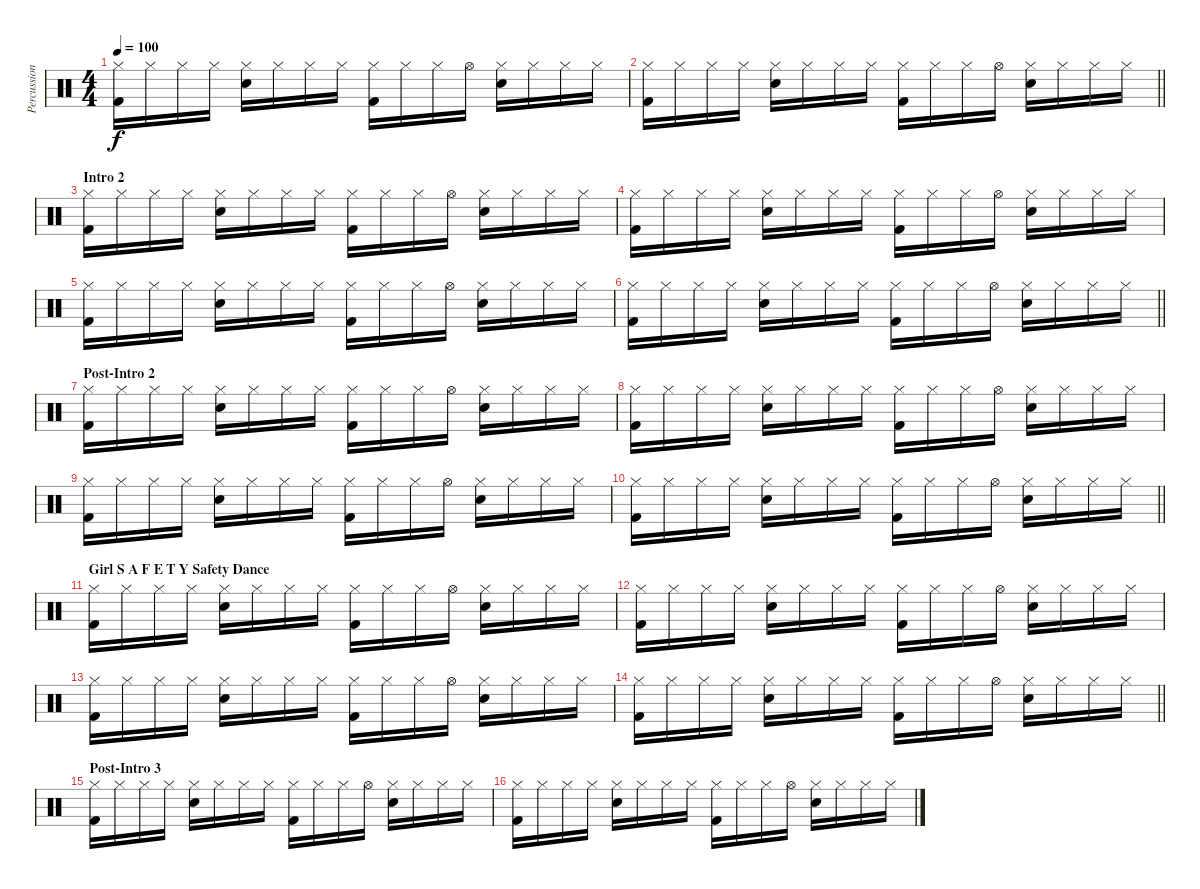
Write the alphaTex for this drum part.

\track ("Percussion" "Percussion") {instrument percussion}
\staff {score}
\articulation defaults
\ts (4 4)
\tempo 100
\clef neutral
\ks c
("Kick (hit) 2" "Hi-Hat (closed)").16{dy f} "Hi-Hat (closed)".16 "Hi-Hat (closed)".16 "Hi-Hat (closed)".16 ("Electric Snare (hit)" "Hi-Hat (closed)").16 "Hi-Hat (closed)".16 "Hi-Hat (closed)".16 "Hi-Hat (closed)".16 ("Kick (hit) 2" "Hi-Hat (closed)").16 "Hi-Hat (closed)".16 "Hi-Hat (closed)".16 "Hi-Hat (open)".16 ("Hi-Hat (closed)" "Electric Snare (hit)").16 "Hi-Hat (closed)".16 "Hi-Hat (closed)".16 "Hi-Hat (closed)".16 |
\barLineRight lightlight
("Kick (hit) 2" "Hi-Hat (closed)").16 "Hi-Hat (closed)".16 "Hi-Hat (closed)".16 "Hi-Hat (closed)".16 ("Electric Snare (hit)" "Hi-Hat (closed)").16 "Hi-Hat (closed)".16 "Hi-Hat (closed)".16 "Hi-Hat (closed)".16 ("Kick (hit) 2" "Hi-Hat (closed)").16 "Hi-Hat (closed)".16 "Hi-Hat (closed)".16 "Hi-Hat (open)".16 ("Hi-Hat (closed)" "Electric Snare (hit)").16 "Hi-Hat (closed)".16 "Hi-Hat (closed)".16 "Hi-Hat (closed)".16 |
\section ("" "Intro 2")
("Kick (hit) 2" "Hi-Hat (closed)").16 "Hi-Hat (closed)".16 "Hi-Hat (closed)".16 "Hi-Hat (closed)".16 ("Electric Snare (hit)" "Hi-Hat (closed)").16 "Hi-Hat (closed)".16 "Hi-Hat (closed)".16 "Hi-Hat (closed)".16 ("Kick (hit) 2" "Hi-Hat (closed)").16 "Hi-Hat (closed)".16 "Hi-Hat (closed)".16 "Hi-Hat (open)".16 ("Hi-Hat (closed)" "Electric Snare (hit)").16 "Hi-Hat (closed)".16 "Hi-Hat (closed)".16 "Hi-Hat (closed)".16 |
("Kick (hit) 2" "Hi-Hat (closed)").16 "Hi-Hat (closed)".16 "Hi-Hat (closed)".16 "Hi-Hat (closed)".16 ("Electric Snare (hit)" "Hi-Hat (closed)").16 "Hi-Hat (closed)".16 "Hi-Hat (closed)".16 "Hi-Hat (closed)".16 ("Kick (hit) 2" "Hi-Hat (closed)").16 "Hi-Hat (closed)".16 "Hi-Hat (closed)".16 "Hi-Hat (open)".16 ("Hi-Hat (closed)" "Electric Snare (hit)").16 "Hi-Hat (closed)".16 "Hi-Hat (closed)".16 "Hi-Hat (closed)".16 |
("Kick (hit) 2" "Hi-Hat (closed)").16 "Hi-Hat (closed)".16 "Hi-Hat (closed)".16 "Hi-Hat (closed)".16 ("Electric Snare (hit)" "Hi-Hat (closed)").16 "Hi-Hat (closed)".16 "Hi-Hat (closed)".16 "Hi-Hat (closed)".16 ("Kick (hit) 2" "Hi-Hat (closed)").16 "Hi-Hat (closed)".16 "Hi-Hat (closed)".16 "Hi-Hat (open)".16 ("Hi-Hat (closed)" "Electric Snare (hit)").16 "Hi-Hat (closed)".16 "Hi-Hat (closed)".16 "Hi-Hat (closed)".16 |
\barLineRight lightlight
("Kick (hit) 2" "Hi-Hat (closed)").16 "Hi-Hat (closed)".16 "Hi-Hat (closed)".16 "Hi-Hat (closed)".16 ("Electric Snare (hit)" "Hi-Hat (closed)").16 "Hi-Hat (closed)".16 "Hi-Hat (closed)".16 "Hi-Hat (closed)".16 ("Kick (hit) 2" "Hi-Hat (closed)").16 "Hi-Hat (closed)".16 "Hi-Hat (closed)".16 "Hi-Hat (open)".16 ("Hi-Hat (closed)" "Electric Snare (hit)").16 "Hi-Hat (closed)".16 "Hi-Hat (closed)".16 "Hi-Hat (closed)".16 |
\section ("" "Post-Intro 2")
("Kick (hit) 2" "Hi-Hat (closed)").16 "Hi-Hat (closed)".16 "Hi-Hat (closed)".16 "Hi-Hat (closed)".16 ("Electric Snare (hit)" "Hi-Hat (closed)").16 "Hi-Hat (closed)".16 "Hi-Hat (closed)".16 "Hi-Hat (closed)".16 ("Kick (hit) 2" "Hi-Hat (closed)").16 "Hi-Hat (closed)".16 "Hi-Hat (closed)".16 "Hi-Hat (open)".16 ("Hi-Hat (closed)" "Electric Snare (hit)").16 "Hi-Hat (closed)".16 "Hi-Hat (closed)".16 "Hi-Hat (closed)".16 |
("Kick (hit) 2" "Hi-Hat (closed)").16 "Hi-Hat (closed)".16 "Hi-Hat (closed)".16 "Hi-Hat (closed)".16 ("Electric Snare (hit)" "Hi-Hat (closed)").16 "Hi-Hat (closed)".16 "Hi-Hat (closed)".16 "Hi-Hat (closed)".16 ("Kick (hit) 2" "Hi-Hat (closed)").16 "Hi-Hat (closed)".16 "Hi-Hat (closed)".16 "Hi-Hat (open)".16 ("Hi-Hat (closed)" "Electric Snare (hit)").16 "Hi-Hat (closed)".16 "Hi-Hat (closed)".16 "Hi-Hat (closed)".16 |
("Kick (hit) 2" "Hi-Hat (closed)").16 "Hi-Hat (closed)".16 "Hi-Hat (closed)".16 "Hi-Hat (closed)".16 ("Electric Snare (hit)" "Hi-Hat (closed)").16 "Hi-Hat (closed)".16 "Hi-Hat (closed)".16 "Hi-Hat (closed)".16 ("Kick (hit) 2" "Hi-Hat (closed)").16 "Hi-Hat (closed)".16 "Hi-Hat (closed)".16 "Hi-Hat (open)".16 ("Hi-Hat (closed)" "Electric Snare (hit)").16 "Hi-Hat (closed)".16 "Hi-Hat (closed)".16 "Hi-Hat (closed)".16 |
\barLineRight lightlight
("Kick (hit) 2" "Hi-Hat (closed)").16 "Hi-Hat (closed)".16 "Hi-Hat (closed)".16 "Hi-Hat (closed)".16 ("Electric Snare (hit)" "Hi-Hat (closed)").16 "Hi-Hat (closed)".16 "Hi-Hat (closed)".16 "Hi-Hat (closed)".16 ("Kick (hit) 2" "Hi-Hat (closed)").16 "Hi-Hat (closed)".16 "Hi-Hat (closed)".16 "Hi-Hat (open)".16 ("Hi-Hat (closed)" "Electric Snare (hit)").16 "Hi-Hat (closed)".16 "Hi-Hat (closed)".16 "Hi-Hat (closed)".16 |
\section ("" "Girl S A F E T Y Safety Dance")
("Kick (hit) 2" "Hi-Hat (closed)").16 "Hi-Hat (closed)".16 "Hi-Hat (closed)".16 "Hi-Hat (closed)".16 ("Electric Snare (hit)" "Hi-Hat (closed)").16 "Hi-Hat (closed)".16 "Hi-Hat (closed)".16 "Hi-Hat (closed)".16 ("Kick (hit) 2" "Hi-Hat (closed)").16 "Hi-Hat (closed)".16 "Hi-Hat (closed)".16 "Hi-Hat (open)".16 ("Hi-Hat (closed)" "Electric Snare (hit)").16 "Hi-Hat (closed)".16 "Hi-Hat (closed)".16 "Hi-Hat (closed)".16 |
("Kick (hit) 2" "Hi-Hat (closed)").16 "Hi-Hat (closed)".16 "Hi-Hat (closed)".16 "Hi-Hat (closed)".16 ("Electric Snare (hit)" "Hi-Hat (closed)").16 "Hi-Hat (closed)".16 "Hi-Hat (closed)".16 "Hi-Hat (closed)".16 ("Kick (hit) 2" "Hi-Hat (closed)").16 "Hi-Hat (closed)".16 "Hi-Hat (closed)".16 "Hi-Hat (open)".16 ("Hi-Hat (closed)" "Electric Snare (hit)").16 "Hi-Hat (closed)".16 "Hi-Hat (closed)".16 "Hi-Hat (closed)".16 |
("Kick (hit) 2" "Hi-Hat (closed)").16 "Hi-Hat (closed)".16 "Hi-Hat (closed)".16 "Hi-Hat (closed)".16 ("Electric Snare (hit)" "Hi-Hat (closed)").16 "Hi-Hat (closed)".16 "Hi-Hat (closed)".16 "Hi-Hat (closed)".16 ("Kick (hit) 2" "Hi-Hat (closed)").16 "Hi-Hat (closed)".16 "Hi-Hat (closed)".16 "Hi-Hat (open)".16 ("Hi-Hat (closed)" "Electric Snare (hit)").16 "Hi-Hat (closed)".16 "Hi-Hat (closed)".16 "Hi-Hat (closed)".16 |
\barLineRight lightlight
("Kick (hit) 2" "Hi-Hat (closed)").16 "Hi-Hat (closed)".16 "Hi-Hat (closed)".16 "Hi-Hat (closed)".16 ("Electric Snare (hit)" "Hi-Hat (closed)").16 "Hi-Hat (closed)".16 "Hi-Hat (closed)".16 "Hi-Hat (closed)".16 ("Kick (hit) 2" "Hi-Hat (closed)").16 "Hi-Hat (closed)".16 "Hi-Hat (closed)".16 "Hi-Hat (open)".16 ("Hi-Hat (closed)" "Electric Snare (hit)").16 "Hi-Hat (closed)".16 "Hi-Hat (closed)".16 "Hi-Hat (closed)".16 |
\section ("" "Post-Intro 3")
("Kick (hit) 2" "Hi-Hat (closed)").16 "Hi-Hat (closed)".16 "Hi-Hat (closed)".16 "Hi-Hat (closed)".16 ("Electric Snare (hit)" "Hi-Hat (closed)").16 "Hi-Hat (closed)".16 "Hi-Hat (closed)".16 "Hi-Hat (closed)".16 ("Kick (hit) 2" "Hi-Hat (closed)").16 "Hi-Hat (closed)".16 "Hi-Hat (closed)".16 "Hi-Hat (open)".16 ("Hi-Hat (closed)" "Electric Snare (hit)").16 "Hi-Hat (closed)".16 "Hi-Hat (closed)".16 "Hi-Hat (closed)".16 |
("Kick (hit) 2" "Hi-Hat (closed)").16 "Hi-Hat (closed)".16 "Hi-Hat (closed)".16 "Hi-Hat (closed)".16 ("Electric Snare (hit)" "Hi-Hat (closed)").16 "Hi-Hat (closed)".16 "Hi-Hat (closed)".16 "Hi-Hat (closed)".16 ("Kick (hit) 2" "Hi-Hat (closed)").16 "Hi-Hat (closed)".16 "Hi-Hat (closed)".16 "Hi-Hat (open)".16 ("Hi-Hat (closed)" "Electric Snare (hit)").16 "Hi-Hat (closed)".16 "Hi-Hat (closed)".16 "Hi-Hat (closed)".16
